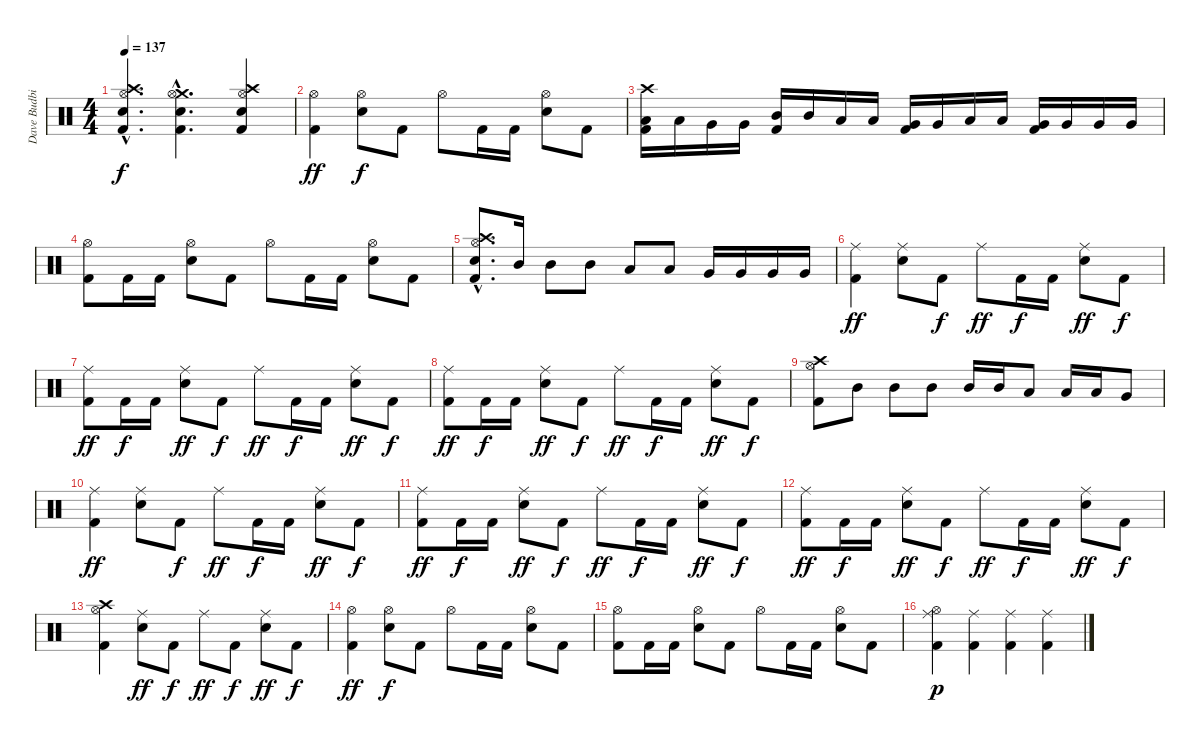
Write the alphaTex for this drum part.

\track ("Dave Budbill" "Dave Budbi") {instrument percussion}
\staff {score}
\articulation defaults
\ts (4 4)
\tempo 137
\clef neutral
\ks c
("Snare (hit) 2"{hac} "Crash high (hit)"{hac} "Hi-Hat (open)"{hac} "Kick (hit) 2"{hac}).4{d dy f} ("Snare (hit) 2"{hac} "Crash medium (hit)"{hac} "Hi-Hat (open)"{hac} "Kick (hit) 2"{hac}).4{d} ("Snare (hit) 2" "Crash high (hit)" "Hi-Hat (open)" "Kick (hit) 2").4 |
("Hi-Hat (open)" "Kick (hit) 2").4{dy ff} ("Hi-Hat (open)" "Electric Snare (hit)").8{dy f} "Kick (hit) 2".8 "Hi-Hat (open)".8 "Kick (hit) 2".16 "Kick (hit) 2".16 ("Hi-Hat (open)" "Electric Snare (hit)").8 "Kick (hit) 2".8 |
("Crash high (hit)" "Low Tom (hit)" "Kick (hit) 2").16 "Low Tom (hit)".16 "Very Low Tom (hit)".16 "Very Low Tom (hit)".16 ("Mid Tom (hit)" "Kick (hit) 2").16 "Mid Tom (hit)".16 "Low Tom (hit)".16 "Low Tom (hit)".16 ("Very Low Tom (hit)" "Kick (hit) 2").16 "Very Low Tom (hit)".16 "Low Tom (hit)".16 "Low Tom (hit)".16 ("Very Low Tom (hit)" "Kick (hit) 2").16 "Very Low Tom (hit)".16 "Very Low Tom (hit)".16 "Very Low Tom (hit)".16 |
("Hi-Hat (open)" "Kick (hit) 2").8 "Kick (hit) 2".16 "Kick (hit) 2".16 ("Hi-Hat (open)" "Electric Snare (hit)").8 "Kick (hit) 2".8 "Hi-Hat (open)".8 "Kick (hit) 2".16 "Kick (hit) 2".16 ("Hi-Hat (open)" "Electric Snare (hit)").8 "Kick (hit) 2".8 |
("Snare (hit) 2"{hac} "Crash high (hit)"{hac} "Hi-Hat (open)"{hac} "Kick (hit) 2"{hac}).8{d} "Mid Tom (hit)".16 "Mid Tom (hit)".8 "Mid Tom (hit)".8 "Low Tom (hit)".8 "Low Tom (hit)".8 "Very Low Tom (hit)".16 "Very Low Tom (hit)".16 "Very Low Tom (hit)".16 "Very Low Tom (hit)".16 |
("Ride (middle)" "Kick (hit) 2").4{dy ff} ("Ride (middle)" "Electric Snare (hit)").8 "Kick (hit) 2".8{dy f} "Ride (middle)".8{dy ff} "Kick (hit) 2".16{dy f} "Kick (hit) 2".16 ("Ride (middle)" "Electric Snare (hit)").8{dy ff} "Kick (hit) 2".8{dy f} |
("Ride (middle)" "Kick (hit) 2").8{dy ff} "Kick (hit) 2".16{dy f} "Kick (hit) 2".16 ("Ride (middle)" "Electric Snare (hit)").8{dy ff} "Kick (hit) 2".8{dy f} "Ride (middle)".8{dy ff} "Kick (hit) 2".16{dy f} "Kick (hit) 2".16 ("Ride (middle)" "Electric Snare (hit)").8{dy ff} "Kick (hit) 2".8{dy f} |
("Ride (middle)" "Kick (hit) 2").8{dy ff} "Kick (hit) 2".16{dy f} "Kick (hit) 2".16 ("Ride (middle)" "Electric Snare (hit)").8{dy ff} "Kick (hit) 2".8{dy f} "Ride (middle)".8{dy ff} "Kick (hit) 2".16{dy f} "Kick (hit) 2".16 ("Ride (middle)" "Electric Snare (hit)").8{dy ff} "Kick (hit) 2".8{dy f} |
("Crash high (hit)" "Hi-Hat (open)" "Kick (hit) 2").8 "Mid Tom (hit)".8 "Mid Tom (hit)".8 "Mid Tom (hit)".8 "Mid Tom (hit)".16 "Mid Tom (hit)".16 "Low Tom (hit)".8 "Low Tom (hit)".16 "Low Tom (hit)".16 "Very Low Tom (hit)".8 |
("Ride (middle)" "Kick (hit) 2").4{dy ff} ("Ride (middle)" "Electric Snare (hit)").8 "Kick (hit) 2".8{dy f} "Ride (middle)".8{dy ff} "Kick (hit) 2".16{dy f} "Kick (hit) 2".16 ("Ride (middle)" "Electric Snare (hit)").8{dy ff} "Kick (hit) 2".8{dy f} |
("Ride (middle)" "Kick (hit) 2").8{dy ff} "Kick (hit) 2".16{dy f} "Kick (hit) 2".16 ("Ride (middle)" "Electric Snare (hit)").8{dy ff} "Kick (hit) 2".8{dy f} "Ride (middle)".8{dy ff} "Kick (hit) 2".16{dy f} "Kick (hit) 2".16 ("Ride (middle)" "Electric Snare (hit)").8{dy ff} "Kick (hit) 2".8{dy f} |
("Ride (middle)" "Kick (hit) 2").8{dy ff} "Kick (hit) 2".16{dy f} "Kick (hit) 2".16 ("Ride (middle)" "Electric Snare (hit)").8{dy ff} "Kick (hit) 2".8{dy f} "Ride (middle)".8{dy ff} "Kick (hit) 2".16{dy f} "Kick (hit) 2".16 ("Ride (middle)" "Electric Snare (hit)").8{dy ff} "Kick (hit) 2".8{dy f} |
("Crash high (hit)" "Hi-Hat (open)" "Kick (hit) 2").4 ("Ride (middle)" "Electric Snare (hit)").8{dy ff} "Kick (hit) 2".8{dy f} "Ride (middle)".8{dy ff} "Kick (hit) 2".8{dy f} ("Ride (middle)" "Electric Snare (hit)").8{dy ff} "Kick (hit) 2".8{dy f} |
("Hi-Hat (open)" "Kick (hit) 2").4{dy ff} ("Hi-Hat (open)" "Electric Snare (hit)").8{dy f} "Kick (hit) 2".8 "Hi-Hat (open)".8 "Kick (hit) 2".16 "Kick (hit) 2".16 ("Hi-Hat (open)" "Electric Snare (hit)").8 "Kick (hit) 2".8 |
("Hi-Hat (open)" "Kick (hit) 2").8 "Kick (hit) 2".16 "Kick (hit) 2".16 ("Hi-Hat (open)" "Electric Snare (hit)").8 "Kick (hit) 2".8 "Hi-Hat (open)".8 "Kick (hit) 2".16 "Kick (hit) 2".16 ("Hi-Hat (open)" "Electric Snare (hit)").8 "Kick (hit) 2".8 |
("Hi-Hat (open)" "Ride (middle)" "Kick (hit) 2").4{dy p} ("Ride (middle)" "Kick (hit) 2").4 ("Ride (middle)" "Kick (hit) 2").4 ("Ride (middle)" "Kick (hit) 2").4
